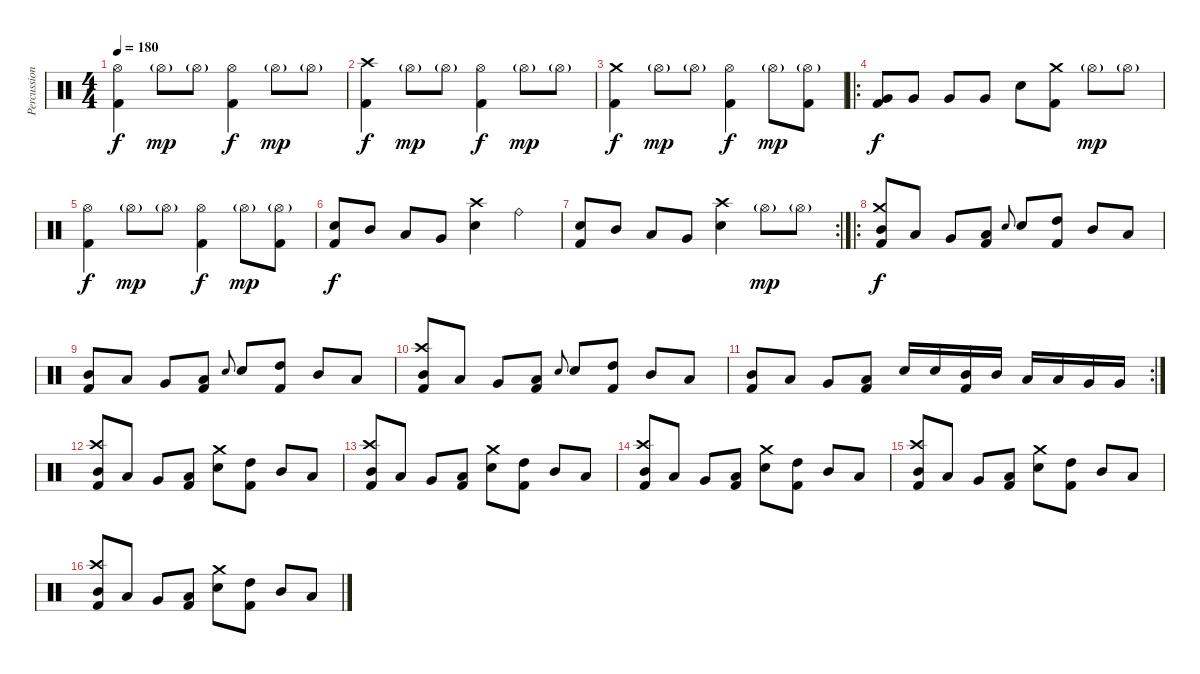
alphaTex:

\track ("Percussion" "Percussion") {instrument percussion}
\staff {score}
\articulation defaults
\ts (4 4)
\tempo 180
\clef neutral
\ks c
("Hi-Hat (open)" "Kick (hit) 2").4{dy f} "Hi-Hat (open)"{g}.8{dy mp} "Hi-Hat (open)"{g}.8 ("Hi-Hat (open)" "Kick (hit) 2").4{dy f} "Hi-Hat (open)"{g}.8{dy mp} "Hi-Hat (open)"{g}.8 |
("Crash high (hit)" "Kick (hit) 2").4{dy f} "Hi-Hat (open)"{g}.8{dy mp} "Hi-Hat (open)"{g}.8 ("Hi-Hat (open)" "Kick (hit) 2").4{dy f} "Hi-Hat (open)"{g}.8{dy mp} "Hi-Hat (open)"{g}.8 |
("Crash medium (hit)" "Kick (hit) 2").4{dy f} "Hi-Hat (open)"{g}.8{dy mp} "Hi-Hat (open)"{g}.8 ("Hi-Hat (open)" "Kick (hit) 2").4{dy f} "Hi-Hat (open)"{g}.8{dy mp} ("Hi-Hat (open)"{g} "Kick (hit) 2").8 |
\ro
("Very Low Tom (hit)" "Kick (hit) 2").8{dy f} "Very Low Tom (hit)".8 "Very Low Tom (hit)".8 "Very Low Tom (hit)".8 "Electric Snare (hit)".8 ("Crash medium (hit)" "Kick (hit) 2").8 "Hi-Hat (open)"{g}.8{dy mp} "Hi-Hat (open)"{g}.8 |
("Hi-Hat (open)" "Kick (hit) 2").4{dy f} "Hi-Hat (open)"{g}.8{dy mp} "Hi-Hat (open)"{g}.8 ("Hi-Hat (open)" "Kick (hit) 2").4{dy f} "Hi-Hat (open)"{g}.8{dy mp} ("Hi-Hat (open)"{g} "Kick (hit) 2").8 |
("Electric Snare (hit)" "Kick (hit) 2").8{dy f} "Mid Tom (hit)".8 "Low Tom (hit)".8 "Very Low Tom (hit)".8 ("Crash high (hit)" "Electric Snare (hit)").4 "Ride (bell)".4 |
\rc 2
("Electric Snare (hit)" "Kick (hit) 2").8 "Mid Tom (hit)".8 "Low Tom (hit)".8 "Very Low Tom (hit)".8 ("Crash high (hit)" "Electric Snare (hit)").4 "Hi-Hat (open)"{g}.8{dy mp} "Hi-Hat (open)"{g}.8 |
\ro
("Crash medium (hit)" "Mid Tom (hit)" "Kick (hit) 2").8{dy f} "Low Tom (hit)".8 "Very Low Tom (hit)".8 ("Low Floor Tom (hit)" "Kick (hit) 2").8 "Electric Snare (hit)".8{gr onbeat} "Electric Snare (hit)".8 ("High Tom (hit)" "Kick (hit) 2").8 "Mid Tom (hit)".8 "Low Tom (hit)".8 |
("Mid Tom (hit)" "Kick (hit) 2").8 "Low Tom (hit)".8 "Very Low Tom (hit)".8 ("Low Floor Tom (hit)" "Kick (hit) 2").8 "Electric Snare (hit)".8{gr onbeat} "Electric Snare (hit)".8 ("High Tom (hit)" "Kick (hit) 2").8 "Mid Tom (hit)".8 "Low Tom (hit)".8 |
("Crash high (hit)" "Mid Tom (hit)" "Kick (hit) 2").8 "Low Tom (hit)".8 "Very Low Tom (hit)".8 ("Low Floor Tom (hit)" "Kick (hit) 2").8 "Electric Snare (hit)".8{gr onbeat} "Electric Snare (hit)".8 ("High Tom (hit)" "Kick (hit) 2").8 "Mid Tom (hit)".8 "Low Tom (hit)".8 |
\rc 2
("Mid Tom (hit)" "Kick (hit) 2").8 "Low Tom (hit)".8 "Very Low Tom (hit)".8 ("Low Floor Tom (hit)" "Kick (hit) 2").8 "Electric Snare (hit)".16 "Electric Snare (hit)".16 ("Mid Tom (hit)" "Kick (hit) 2").16 "Mid Tom (hit)".16 "Low Tom (hit)".16 "Low Tom (hit)".16 "Very Low Tom (hit)".16 "Very Low Tom (hit)".16 |
("Crash high (hit)" "Mid Tom (hit)" "Kick (hit) 2").8 "Low Tom (hit)".8 "Very Low Tom (hit)".8 ("Low Floor Tom (hit)" "Kick (hit) 2").8 ("Crash medium (hit)" "Electric Snare (hit)").8 ("High Tom (hit)" "Kick (hit) 2").8 "Mid Tom (hit)".8 "Low Tom (hit)".8 |
("Crash high (hit)" "Mid Tom (hit)" "Kick (hit) 2").8 "Low Tom (hit)".8 "Very Low Tom (hit)".8 ("Low Floor Tom (hit)" "Kick (hit) 2").8 ("Crash medium (hit)" "Electric Snare (hit)").8 ("High Tom (hit)" "Kick (hit) 2").8 "Mid Tom (hit)".8 "Low Tom (hit)".8 |
("Crash high (hit)" "Mid Tom (hit)" "Kick (hit) 2").8 "Low Tom (hit)".8 "Very Low Tom (hit)".8 ("Low Floor Tom (hit)" "Kick (hit) 2").8 ("Crash medium (hit)" "Electric Snare (hit)").8 ("High Tom (hit)" "Kick (hit) 2").8 "Mid Tom (hit)".8 "Low Tom (hit)".8 |
("Crash high (hit)" "Mid Tom (hit)" "Kick (hit) 2").8 "Low Tom (hit)".8 "Very Low Tom (hit)".8 ("Low Floor Tom (hit)" "Kick (hit) 2").8 ("Crash medium (hit)" "Electric Snare (hit)").8 ("High Tom (hit)" "Kick (hit) 2").8 "Mid Tom (hit)".8 "Low Tom (hit)".8 |
("Crash high (hit)" "Mid Tom (hit)" "Kick (hit) 2").8 "Low Tom (hit)".8 "Very Low Tom (hit)".8 ("Low Floor Tom (hit)" "Kick (hit) 2").8 ("Crash medium (hit)" "Electric Snare (hit)").8 ("High Tom (hit)" "Kick (hit) 2").8 "Mid Tom (hit)".8 "Low Tom (hit)".8
